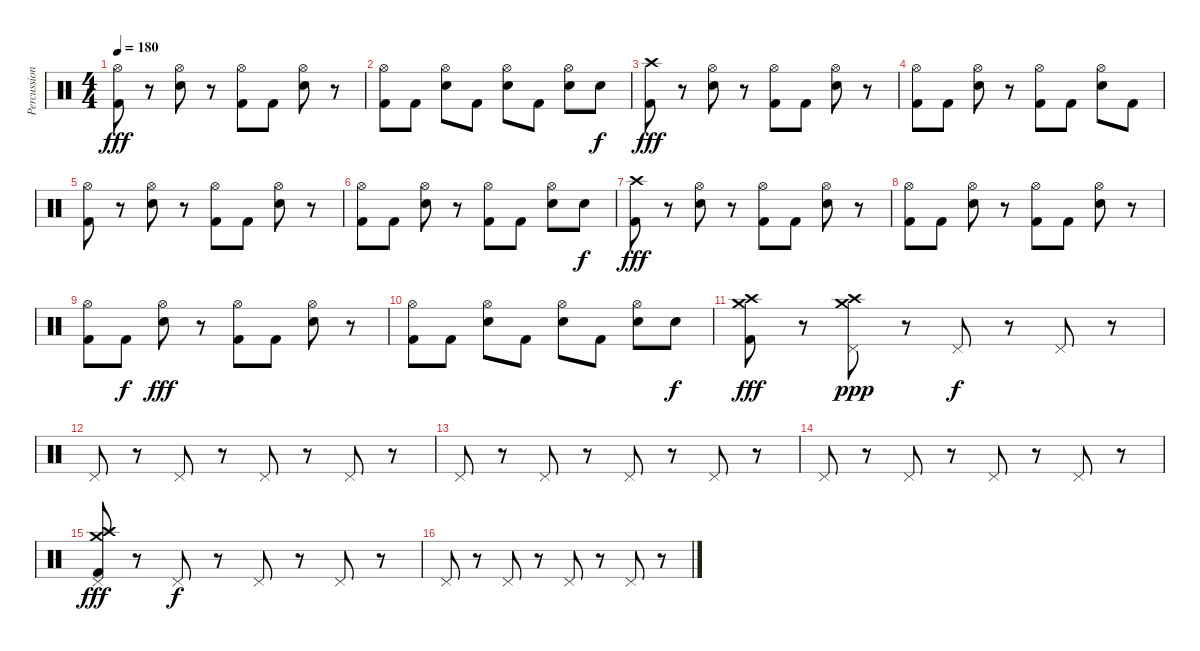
\track ("Percussions" "Percussion") {mute instrument percussion}
\staff {score}
\articulation defaults
\ts (4 4)
\tempo 180
\clef neutral
\ks c
("Hi-Hat (open)" "Kick (hit) 2").8{dy fff} r.8 ("Hi-Hat (open)" "Electric Snare (hit)").8 r.8 ("Hi-Hat (open)" "Kick (hit) 2").8 "Kick (hit) 2".8 ("Hi-Hat (open)" "Electric Snare (hit)").8 r.8 |
("Hi-Hat (open)" "Kick (hit) 2").8 "Kick (hit) 2".8 ("Hi-Hat (open)" "Electric Snare (hit)").8 "Kick (hit) 2".8 ("Hi-Hat (open)" "Electric Snare (hit)").8 "Kick (hit) 2".8 ("Hi-Hat (open)" "Electric Snare (hit)").8 "Electric Snare (hit)".8{dy f} |
("Crash high (hit)" "Kick (hit) 2").8{dy fff} r.8 ("Hi-Hat (open)" "Electric Snare (hit)").8 r.8 ("Hi-Hat (open)" "Kick (hit) 2").8 "Kick (hit) 2".8 ("Hi-Hat (open)" "Electric Snare (hit)").8 r.8 |
("Hi-Hat (open)" "Kick (hit) 2").8 "Kick (hit) 2".8 ("Hi-Hat (open)" "Electric Snare (hit)").8 r.8 ("Hi-Hat (open)" "Kick (hit) 2").8 "Kick (hit) 2".8 ("Hi-Hat (open)" "Electric Snare (hit)").8 "Kick (hit) 2".8 |
("Hi-Hat (open)" "Kick (hit) 2").8 r.8 ("Hi-Hat (open)" "Electric Snare (hit)").8 r.8 ("Hi-Hat (open)" "Kick (hit) 2").8 "Kick (hit) 2".8 ("Hi-Hat (open)" "Electric Snare (hit)").8 r.8 |
("Hi-Hat (open)" "Kick (hit) 2").8 "Kick (hit) 2".8 ("Hi-Hat (open)" "Electric Snare (hit)").8 r.8 ("Hi-Hat (open)" "Kick (hit) 2").8 "Kick (hit) 2".8 ("Hi-Hat (open)" "Electric Snare (hit)").8 "Electric Snare (hit)".8{dy f} |
("Crash high (hit)" "Kick (hit) 2").8{dy fff} r.8 ("Hi-Hat (open)" "Electric Snare (hit)").8 r.8 ("Hi-Hat (open)" "Kick (hit) 2").8 "Kick (hit) 2".8 ("Hi-Hat (open)" "Electric Snare (hit)").8 r.8 |
("Hi-Hat (open)" "Kick (hit) 2").8 "Kick (hit) 2".8 ("Hi-Hat (open)" "Electric Snare (hit)").8 r.8 ("Hi-Hat (open)" "Kick (hit) 2").8 "Kick (hit) 2".8 ("Hi-Hat (open)" "Electric Snare (hit)").8 r.8 |
("Hi-Hat (open)" "Kick (hit) 2").8 "Kick (hit) 2".8{dy f} ("Hi-Hat (open)" "Electric Snare (hit)").8{dy fff} r.8 ("Hi-Hat (open)" "Kick (hit) 2").8 "Kick (hit) 2".8 ("Hi-Hat (open)" "Electric Snare (hit)").8 r.8 |
("Hi-Hat (open)" "Kick (hit) 2").8 "Kick (hit) 2".8 ("Hi-Hat (open)" "Electric Snare (hit)").8 "Kick (hit) 2".8 ("Hi-Hat (open)" "Electric Snare (hit)").8 "Kick (hit) 2".8 ("Hi-Hat (open)" "Electric Snare (hit)").8 "Electric Snare (hit)".8{dy f} |
("Crash medium (hit)" "Crash high (hit)" "Kick (hit) 2").8{dy fff} r.8 ("Crash medium (hit)" "Crash high (hit)" "Pedal Hi-Hat (hit)").8{dy ppp} r.8 "Pedal Hi-Hat (hit)".8{dy f} r.8 "Pedal Hi-Hat (hit)".8 r.8 |
"Pedal Hi-Hat (hit)".8 r.8 "Pedal Hi-Hat (hit)".8 r.8 "Pedal Hi-Hat (hit)".8 r.8 "Pedal Hi-Hat (hit)".8 r.8 |
"Pedal Hi-Hat (hit)".8 r.8 "Pedal Hi-Hat (hit)".8 r.8 "Pedal Hi-Hat (hit)".8 r.8 "Pedal Hi-Hat (hit)".8 r.8 |
"Pedal Hi-Hat (hit)".8 r.8 "Pedal Hi-Hat (hit)".8 r.8 "Pedal Hi-Hat (hit)".8 r.8 "Pedal Hi-Hat (hit)".8 r.8 |
("Crash medium (hit)" "Crash high (hit)" "Pedal Hi-Hat (hit)" "Kick (hit) 2").8{dy fff} r.8 "Pedal Hi-Hat (hit)".8{dy f} r.8 "Pedal Hi-Hat (hit)".8 r.8 "Pedal Hi-Hat (hit)".8 r.8 |
"Pedal Hi-Hat (hit)".8 r.8 "Pedal Hi-Hat (hit)".8 r.8 "Pedal Hi-Hat (hit)".8 r.8 "Pedal Hi-Hat (hit)".8 r.8
